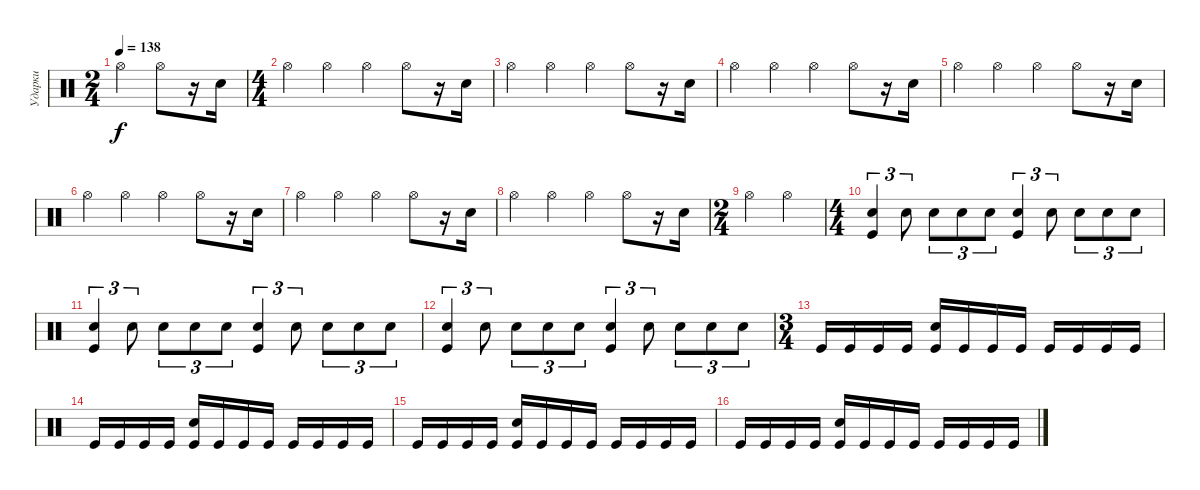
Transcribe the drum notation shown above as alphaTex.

\track ("Ударки" "Ударки") {instrument percussion}
\staff {score}
\articulation defaults
\ts (2 4)
\tempo 138
\clef neutral
\ks c "Hi-Hat (open)".4{dy f} "Hi-Hat (open)".8
r.16 "Snare (hit) 2".16 |
\ts (4 4)
"Hi-Hat (open)".4 "Hi-Hat (open)".4 "Hi-Hat (open)".4 "Hi-Hat (open)".8 r.16 "Snare (hit) 2".16 |
"Hi-Hat (open)".4 "Hi-Hat (open)".4 "Hi-Hat (open)".4 "Hi-Hat (open)".8 r.16 "Snare (hit) 2".16 |
"Hi-Hat (open)".4 "Hi-Hat (open)".4 "Hi-Hat (open)".4 "Hi-Hat (open)".8 r.16 "Snare (hit) 2".16 |
"Hi-Hat (open)".4 "Hi-Hat (open)".4 "Hi-Hat (open)".4 "Hi-Hat (open)".8 r.16 "Snare (hit) 2".16 |
"Hi-Hat (open)".4 "Hi-Hat (open)".4 "Hi-Hat (open)".4 "Hi-Hat (open)".8 r.16 "Snare (hit) 2".16 |
"Hi-Hat (open)".4 "Hi-Hat (open)".4 "Hi-Hat (open)".4 "Hi-Hat (open)".8 r.16 "Snare (hit) 2".16 |
"Hi-Hat (open)".4 "Hi-Hat (open)".4 "Hi-Hat (open)".4 "Hi-Hat (open)".8 r.16 "Snare (hit) 2".16 |
\ts (2 4)
"Hi-Hat (open)".4 "Hi-Hat (open)".4 |
\ts (4 4)
("Snare (hit) 2" "Kick (hit)").4{tu (3 2)} "Snare (hit) 2".8{tu (3 2)} "Snare (hit) 2".8{tu (3 2)} "Snare (hit) 2".8{tu (3 2)} "Snare (hit) 2".8{tu (3 2)} ("Snare (hit) 2" "Kick (hit)").4{tu (3 2)} "Snare (hit) 2".8{tu (3 2)} "Snare (hit) 2".8{tu (3 2)} "Snare (hit) 2".8{tu (3 2)} "Snare (hit) 2".8{tu (3 2)} |
("Snare (hit) 2" "Kick (hit)").4{tu (3 2)} "Snare (hit) 2".8{tu (3 2)} "Snare (hit) 2".8{tu (3 2)} "Snare (hit) 2".8{tu (3 2)} "Snare (hit) 2".8{tu (3 2)} ("Snare (hit) 2" "Kick (hit)").4{tu (3 2)} "Snare (hit) 2".8{tu (3 2)} "Snare (hit) 2".8{tu (3 2)} "Snare (hit) 2".8{tu (3 2)} "Snare (hit) 2".8{tu (3 2)} |
("Snare (hit) 2" "Kick (hit)").4{tu (3 2)} "Snare (hit) 2".8{tu (3 2)} "Snare (hit) 2".8{tu (3 2)} "Snare (hit) 2".8{tu (3 2)} "Snare (hit) 2".8{tu (3 2)} ("Snare (hit) 2" "Kick (hit)").4{tu (3 2)} "Snare (hit) 2".8{tu (3 2)} "Snare (hit) 2".8{tu (3 2)} "Snare (hit) 2".8{tu (3 2)} "Snare (hit) 2".8{tu (3 2)} |
\ts (3 4)
"Kick (hit)".16 "Kick (hit)".16 "Kick (hit)".16 "Kick (hit)".16 ("Kick (hit)" "Snare (hit) 2").16 "Kick (hit)".16 "Kick (hit)".16 "Kick (hit)".16 "Kick (hit)".16 "Kick (hit)".16 "Kick (hit)".16 "Kick (hit)".16 |
"Kick (hit)".16 "Kick (hit)".16 "Kick (hit)".16 "Kick (hit)".16 ("Kick (hit)" "Snare (hit) 2").16 "Kick (hit)".16 "Kick (hit)".16 "Kick (hit)".16 "Kick (hit)".16 "Kick (hit)".16 "Kick (hit)".16 "Kick (hit)".16 |
"Kick (hit)".16 "Kick (hit)".16 "Kick (hit)".16 "Kick (hit)".16 ("Kick (hit)" "Snare (hit) 2").16 "Kick (hit)".16 "Kick (hit)".16 "Kick (hit)".16 "Kick (hit)".16 "Kick (hit)".16 "Kick (hit)".16 "Kick (hit)".16 |
"Kick (hit)".16 "Kick (hit)".16 "Kick (hit)".16 "Kick (hit)".16 ("Kick (hit)" "Snare (hit) 2").16 "Kick (hit)".16 "Kick (hit)".16 "Kick (hit)".16 "Kick (hit)".16 "Kick (hit)".16 "Kick (hit)".16 "Kick (hit)".16
